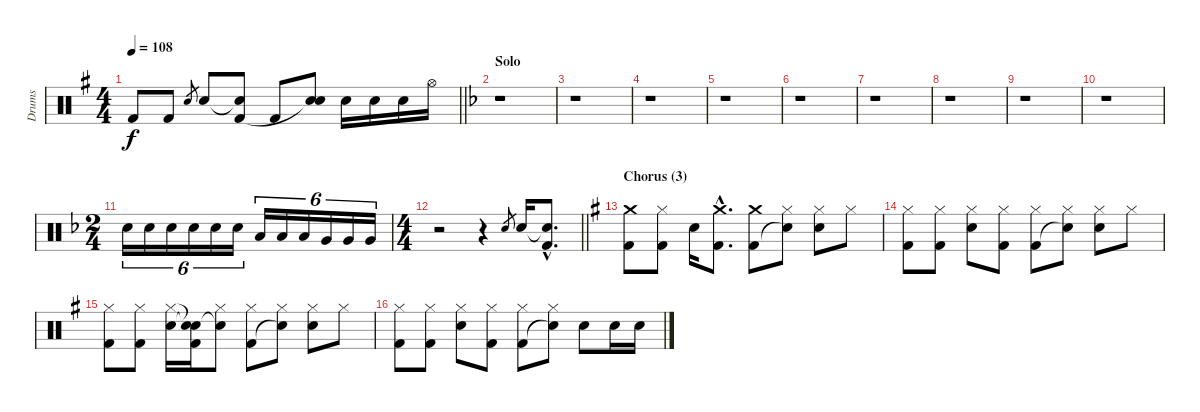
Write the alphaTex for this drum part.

\track ("Drums" "Drums") {instrument percussion}
\staff {score}
\articulation defaults
\ts (4 4)
\tempo 108
\clef neutral
\barLineRight lightlight
\ks eminor "Kick (hit) 2".8{dy f} "Kick (hit) 2".8 "Electric Snare (hit)".8{gr} "Electric Snare (hit)".8
("Snare (hit)"{t} "Kick (hit) 2").8 "Kick (hit) 2".8 ("Electric Snare (hit)" "Snare (hit)"{t}).8 "Electric Snare (hit)".16 "Electric Snare (hit)".16 "Electric Snare (hit)".16 "Hi-Hat (open)".16 |
\section ("" "Solo")
\ks dminor
r.1 |
r.1 |
r.1 |
r.1 |
r.1 |
r.1 |
r.1 |
r.1 |
r.1 |
\ts (2 4)
"Electric Snare (hit)".16{tu (6 4)} "Electric Snare (hit)".16{tu (6 4)} "Electric Snare (hit)".16{tu (6 4)} "Electric Snare (hit)".16{tu (6 4)} "Electric Snare (hit)".16{tu (6 4)} "Electric Snare (hit)".16{tu (6 4)} "Low Tom (hit)".16{tu (6 4)} "Low Tom (hit)".16{tu (6 4)} "Low Tom (hit)".16{tu (6 4)} "Very Low Tom (hit)".16{tu (6 4)} "Very Low Tom (hit)".16{tu (6 4)} "Very Low Tom (hit)".16{tu (6 4)} |
\ts (4 4)
\barLineRight lightlight
r.2 r.4 "Electric Snare (hit)".8{gr} "Electric Snare (hit)".16 ("Snare (hit)"{hac t} "Kick (hit) 2"{hac}).8{d} |
\section ("" "Chorus (3)")
\ks eminor
("Crash medium (hit)" "Kick (hit) 2").8 ("Hi-Hat (closed)" "Kick (hit) 2").8 "Electric Snare (hit)".16 ("Crash medium (hit)"{hac} "Kick (hit) 2"{hac}).8{d} ("Crash medium (hit)" "Kick (hit) 2").8 ("Hi-Hat (closed)" "Snare (hit)"{t}).8 ("Hi-Hat (closed)" "Electric Snare (hit)").8 "Hi-Hat (closed)".8 |
("Hi-Hat (closed)" "Kick (hit) 2").8 ("Hi-Hat (closed)" "Kick (hit) 2").8 ("Hi-Hat (closed)" "Electric Snare (hit)").8 ("Hi-Hat (closed)" "Kick (hit) 2").8 ("Hi-Hat (closed)" "Kick (hit) 2").8 ("Hi-Hat (closed)" "Snare (hit)"{t}).8 ("Hi-Hat (closed)" "Electric Snare (hit)").8 "Hi-Hat (closed)".8 |
("Hi-Hat (closed)" "Kick (hit) 2").8 ("Hi-Hat (closed)" "Kick (hit) 2").8 ("Hi-Hat (closed)" "Electric Snare (hit)").16 ("Snare (hit)"{t} "Snare (hit)"{t} "Kick (hit) 2").16 ("Hi-Hat (closed)" "Snare (hit)"{t}).8 ("Hi-Hat (closed)" "Kick (hit) 2").8 ("Hi-Hat (closed)" "Snare (hit)"{t}).8 ("Hi-Hat (closed)" "Electric Snare (hit)").8 "Hi-Hat (closed)".8 |
("Hi-Hat (closed)" "Kick (hit) 2").8 ("Hi-Hat (closed)" "Kick (hit) 2").8 ("Hi-Hat (closed)" "Electric Snare (hit)").8 ("Hi-Hat (closed)" "Kick (hit) 2").8 ("Hi-Hat (closed)" "Kick (hit) 2").8 ("Hi-Hat (closed)" "Snare (hit)"{t}).8 "Electric Snare (hit)".8 "Electric Snare (hit)".16 "Electric Snare (hit)".16
